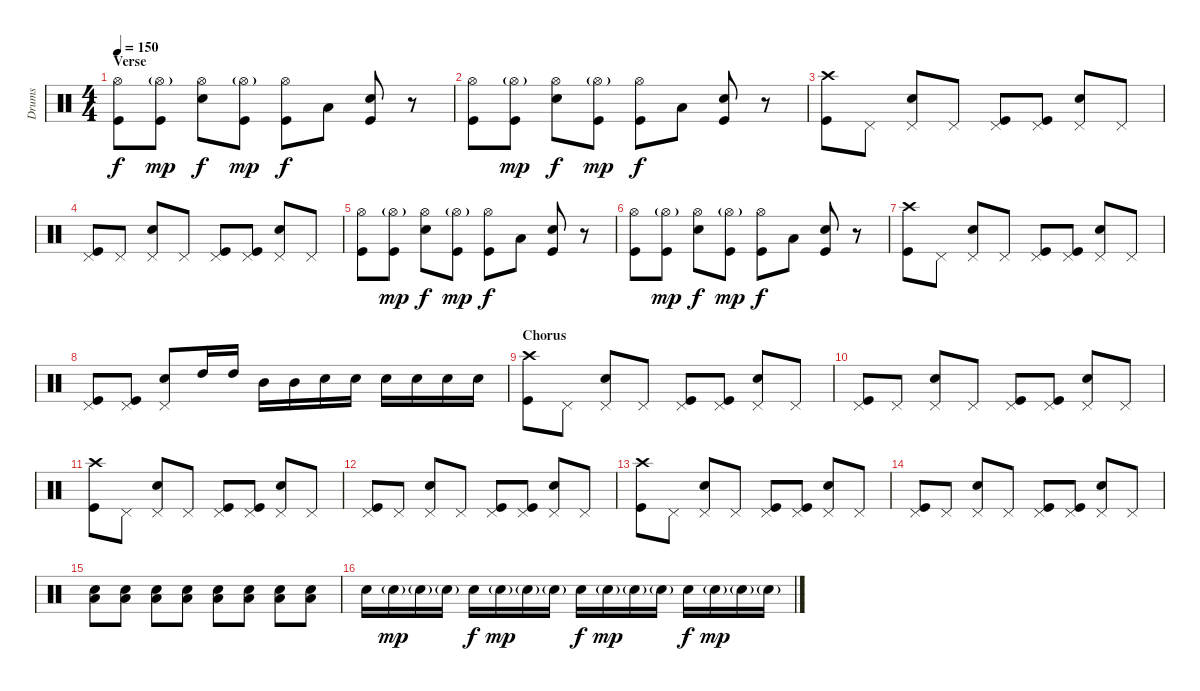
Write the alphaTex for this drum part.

\track ("Drums" "Drums") {instrument percussion}
\staff {score}
\articulation defaults
\ts (4 4)
\section ("" "Verse")
\tempo 150
\clef neutral
\ks c
("Hi-Hat (open)" "Kick (hit)").8{dy f} ("Hi-Hat (open)"{g} "Kick (hit)").8{dy mp} ("Hi-Hat (open)" "Snare (hit) 2").8{dy f} ("Hi-Hat (open)"{g} "Kick (hit)").8{dy mp} ("Hi-Hat (open)" "Kick (hit)").8{dy f} "Low Floor Tom (hit)".8 ("Snare (hit) 2" "Kick (hit)").8 r.8 |
("Hi-Hat (open)" "Kick (hit)").8 ("Hi-Hat (open)"{g} "Kick (hit)").8{dy mp} ("Hi-Hat (open)" "Snare (hit) 2").8{dy f} ("Hi-Hat (open)"{g} "Kick (hit)").8{dy mp} ("Hi-Hat (open)" "Kick (hit)").8{dy f} "Low Floor Tom (hit)".8 ("Snare (hit) 2" "Kick (hit)").8 r.8 |
("Crash high (hit)" "Kick (hit)").8 "Pedal Hi-Hat (hit)".8 ("Pedal Hi-Hat (hit)" "Snare (hit) 2").8 "Pedal Hi-Hat (hit)".8 ("Pedal Hi-Hat (hit)" "Kick (hit)").8 ("Pedal Hi-Hat (hit)" "Kick (hit)").8 ("Pedal Hi-Hat (hit)" "Snare (hit) 2").8 "Pedal Hi-Hat (hit)".8 |
("Pedal Hi-Hat (hit)" "Kick (hit)").8 "Pedal Hi-Hat (hit)".8 ("Pedal Hi-Hat (hit)" "Snare (hit) 2").8 "Pedal Hi-Hat (hit)".8 ("Pedal Hi-Hat (hit)" "Kick (hit)").8 ("Pedal Hi-Hat (hit)" "Kick (hit)").8 ("Pedal Hi-Hat (hit)" "Snare (hit) 2").8 "Pedal Hi-Hat (hit)".8 |
("Hi-Hat (open)" "Kick (hit)").8 ("Hi-Hat (open)"{g} "Kick (hit)").8{dy mp} ("Hi-Hat (open)" "Snare (hit) 2").8{dy f} ("Hi-Hat (open)"{g} "Kick (hit)").8{dy mp} ("Hi-Hat (open)" "Kick (hit)").8{dy f} "Low Floor Tom (hit)".8 ("Snare (hit) 2" "Kick (hit)").8 r.8 |
("Hi-Hat (open)" "Kick (hit)").8 ("Hi-Hat (open)"{g} "Kick (hit)").8{dy mp} ("Hi-Hat (open)" "Snare (hit) 2").8{dy f} ("Hi-Hat (open)"{g} "Kick (hit)").8{dy mp} ("Hi-Hat (open)" "Kick (hit)").8{dy f} "Low Floor Tom (hit)".8 ("Snare (hit) 2" "Kick (hit)").8 r.8 |
("Crash high (hit)" "Kick (hit)").8 "Pedal Hi-Hat (hit)".8 ("Pedal Hi-Hat (hit)" "Snare (hit) 2").8 "Pedal Hi-Hat (hit)".8 ("Pedal Hi-Hat (hit)" "Kick (hit)").8 ("Pedal Hi-Hat (hit)" "Kick (hit)").8 ("Pedal Hi-Hat (hit)" "Snare (hit) 2").8 "Pedal Hi-Hat (hit)".8 |
("Pedal Hi-Hat (hit)" "Kick (hit)").8 ("Pedal Hi-Hat (hit)" "Kick (hit)").8 ("Pedal Hi-Hat (hit)" "Snare (hit) 2").8 "High Tom (hit)".16 "High Tom (hit)".16 "Mid Tom (hit)".16 "Mid Tom (hit)".16 "Snare (hit) 2".16 "Snare (hit) 2".16 "Snare (hit) 2".16 "Snare (hit) 2".16 "Snare (hit) 2".16 "Snare (hit) 2".16 |
\section ("" "Chorus")
("Crash high (hit)" "Kick (hit)").8 "Pedal Hi-Hat (hit)".8 ("Pedal Hi-Hat (hit)" "Snare (hit) 2").8 "Pedal Hi-Hat (hit)".8 ("Pedal Hi-Hat (hit)" "Kick (hit)").8 ("Pedal Hi-Hat (hit)" "Kick (hit)").8 ("Pedal Hi-Hat (hit)" "Snare (hit) 2").8 "Pedal Hi-Hat (hit)".8 |
("Pedal Hi-Hat (hit)" "Kick (hit)").8 "Pedal Hi-Hat (hit)".8 ("Pedal Hi-Hat (hit)" "Snare (hit) 2").8 "Pedal Hi-Hat (hit)".8 ("Pedal Hi-Hat (hit)" "Kick (hit)").8 ("Pedal Hi-Hat (hit)" "Kick (hit)").8 ("Pedal Hi-Hat (hit)" "Snare (hit) 2").8 "Pedal Hi-Hat (hit)".8 |
("Crash high (hit)" "Kick (hit)").8 "Pedal Hi-Hat (hit)".8 ("Pedal Hi-Hat (hit)" "Snare (hit) 2").8 "Pedal Hi-Hat (hit)".8 ("Pedal Hi-Hat (hit)" "Kick (hit)").8 ("Pedal Hi-Hat (hit)" "Kick (hit)").8 ("Pedal Hi-Hat (hit)" "Snare (hit) 2").8 "Pedal Hi-Hat (hit)".8 |
("Pedal Hi-Hat (hit)" "Kick (hit)").8 "Pedal Hi-Hat (hit)".8 ("Pedal Hi-Hat (hit)" "Snare (hit) 2").8 "Pedal Hi-Hat (hit)".8 ("Pedal Hi-Hat (hit)" "Kick (hit)").8 ("Pedal Hi-Hat (hit)" "Kick (hit)").8 ("Pedal Hi-Hat (hit)" "Snare (hit) 2").8 "Pedal Hi-Hat (hit)".8 |
("Crash high (hit)" "Kick (hit)").8 "Pedal Hi-Hat (hit)".8 ("Pedal Hi-Hat (hit)" "Snare (hit) 2").8 "Pedal Hi-Hat (hit)".8 ("Pedal Hi-Hat (hit)" "Kick (hit)").8 ("Pedal Hi-Hat (hit)" "Kick (hit)").8 ("Pedal Hi-Hat (hit)" "Snare (hit) 2").8 "Pedal Hi-Hat (hit)".8 |
("Pedal Hi-Hat (hit)" "Kick (hit)").8 "Pedal Hi-Hat (hit)".8 ("Pedal Hi-Hat (hit)" "Snare (hit) 2").8 "Pedal Hi-Hat (hit)".8 ("Pedal Hi-Hat (hit)" "Kick (hit)").8 ("Pedal Hi-Hat (hit)" "Kick (hit)").8 ("Pedal Hi-Hat (hit)" "Snare (hit) 2").8 "Pedal Hi-Hat (hit)".8 |
("Low Floor Tom (hit)" "Snare (hit) 2").8 ("Low Floor Tom (hit)" "Snare (hit) 2").8 ("Low Floor Tom (hit)" "Snare (hit) 2").8 ("Low Floor Tom (hit)" "Snare (hit) 2").8 ("Low Floor Tom (hit)" "Snare (hit) 2").8 ("Low Floor Tom (hit)" "Snare (hit) 2").8 ("Low Floor Tom (hit)" "Snare (hit) 2").8 ("Low Floor Tom (hit)" "Snare (hit) 2").8 |
"Snare (hit) 2".16 "Snare (hit) 2"{g}.16{dy mp} "Snare (hit) 2"{g}.16 "Snare (hit) 2"{g}.16 "Snare (hit) 2".16{dy f} "Snare (hit) 2"{g}.16{dy mp} "Snare (hit) 2"{g}.16 "Snare (hit) 2"{g}.16 "Snare (hit) 2".16{dy f} "Snare (hit) 2"{g}.16{dy mp} "Snare (hit) 2"{g}.16 "Snare (hit) 2"{g}.16 "Snare (hit) 2".16{dy f} "Snare (hit) 2"{g}.16{dy mp} "Snare (hit) 2"{g}.16 "Snare (hit) 2"{g}.16
